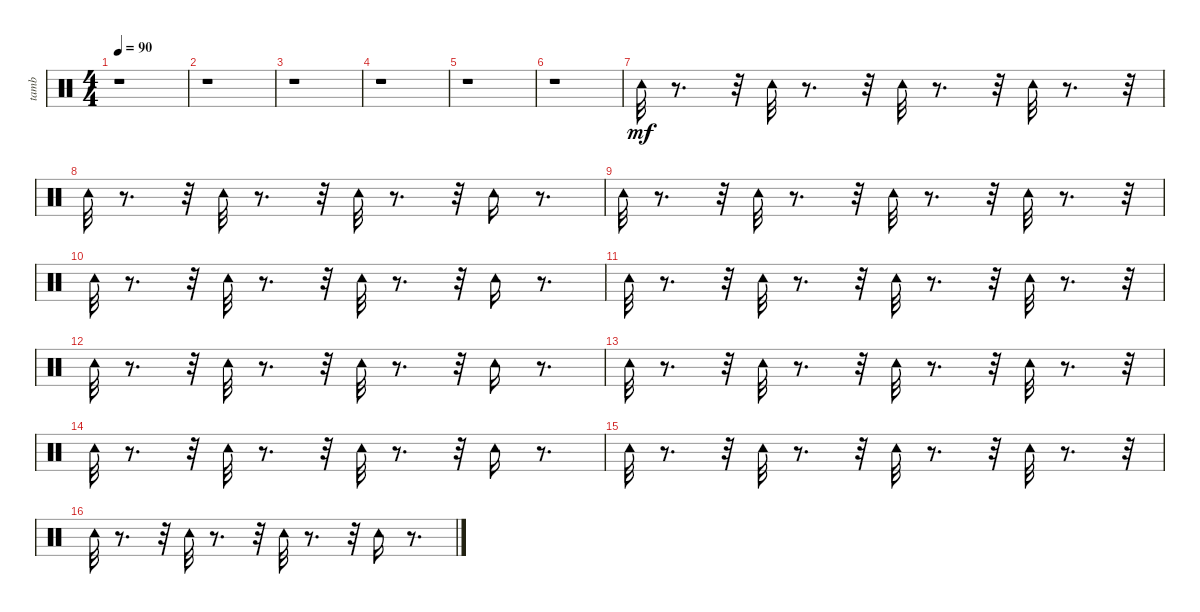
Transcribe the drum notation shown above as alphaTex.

\track ("tamb" "tamb") {instrument percussion}
\staff {score}
\articulation defaults
\ts (4 4)
\tempo 90
\clef neutral
\ks c
r.1{dy mf} |
r.1 |
r.1 |
r.1 |
r.1 |
r.1 |
"Tambourine (hit)".32 r.8{d} r.32 "Tambourine (hit)".32 r.8{d} r.32 "Tambourine (hit)".32 r.8{d} r.32 "Tambourine (hit)".32 r.8{d} r.32 |
"Tambourine (hit)".32 r.8{d} r.32 "Tambourine (hit)".32 r.8{d} r.32 "Tambourine (hit)".32 r.8{d} r.32 "Tambourine (hit)".16 r.8{d} |
"Tambourine (hit)".32 r.8{d} r.32 "Tambourine (hit)".32 r.8{d} r.32 "Tambourine (hit)".32 r.8{d} r.32 "Tambourine (hit)".32 r.8{d} r.32 |
"Tambourine (hit)".32 r.8{d} r.32 "Tambourine (hit)".32 r.8{d} r.32 "Tambourine (hit)".32 r.8{d} r.32 "Tambourine (hit)".16 r.8{d} |
"Tambourine (hit)".32 r.8{d} r.32 "Tambourine (hit)".32 r.8{d} r.32 "Tambourine (hit)".32 r.8{d} r.32 "Tambourine (hit)".32 r.8{d} r.32 |
"Tambourine (hit)".32 r.8{d} r.32 "Tambourine (hit)".32 r.8{d} r.32 "Tambourine (hit)".32 r.8{d} r.32 "Tambourine (hit)".16 r.8{d} |
"Tambourine (hit)".32 r.8{d} r.32 "Tambourine (hit)".32 r.8{d} r.32 "Tambourine (hit)".32 r.8{d} r.32 "Tambourine (hit)".32 r.8{d} r.32 |
"Tambourine (hit)".32 r.8{d} r.32 "Tambourine (hit)".32 r.8{d} r.32 "Tambourine (hit)".32 r.8{d} r.32 "Tambourine (hit)".16 r.8{d} |
"Tambourine (hit)".32 r.8{d} r.32 "Tambourine (hit)".32 r.8{d} r.32 "Tambourine (hit)".32 r.8{d} r.32 "Tambourine (hit)".32 r.8{d} r.32 |
"Tambourine (hit)".32 r.8{d} r.32 "Tambourine (hit)".32 r.8{d} r.32 "Tambourine (hit)".32 r.8{d} r.32 "Tambourine (hit)".16 r.8{d}
